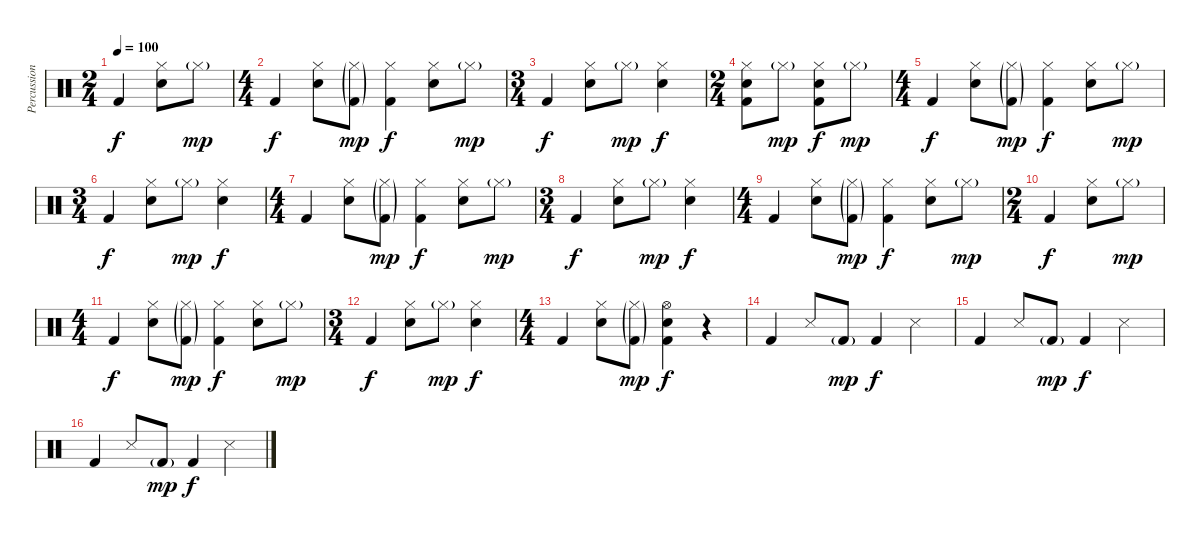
\track ("Percussion" "Percussion") {instrument percussion}
\staff {score}
\articulation defaults
\ts (2 4)
\tempo 100
\clef neutral
\ks c "Kick (hit) 2".4{dy f}
("Hi-Hat (closed)" "Snare (hit) 2").8 "Hi-Hat (closed)"{g}.8{dy mp} |
\ts (4 4)
"Kick (hit) 2".4{dy f} ("Hi-Hat (closed)" "Snare (hit) 2").8 ("Hi-Hat (closed)"{g} "Kick (hit) 2"{g}).8{dy mp} ("Hi-Hat (closed)" "Kick (hit) 2").4{dy f} ("Hi-Hat (closed)" "Snare (hit) 2").8 "Hi-Hat (closed)"{g}.8{dy mp} |
\ts (3 4)
"Kick (hit) 2".4{dy f} ("Hi-Hat (closed)" "Snare (hit) 2").8 "Hi-Hat (closed)"{g}.8{dy mp} ("Hi-Hat (closed)" "Snare (hit) 2").4{dy f} |
\ts (2 4)
("Hi-Hat (closed)" "Snare (hit) 2" "Kick (hit) 2").8 "Hi-Hat (closed)"{g}.8{dy mp} ("Hi-Hat (closed)" "Snare (hit) 2" "Kick (hit) 2").8{dy f} "Hi-Hat (closed)"{g}.8{dy mp} |
\ts (4 4)
"Kick (hit) 2".4{dy f} ("Hi-Hat (closed)" "Snare (hit) 2").8 ("Hi-Hat (closed)"{g} "Kick (hit) 2"{g}).8{dy mp} ("Hi-Hat (closed)" "Kick (hit) 2").4{dy f} ("Hi-Hat (closed)" "Snare (hit) 2").8 "Hi-Hat (closed)"{g}.8{dy mp} |
\ts (3 4)
"Kick (hit) 2".4{dy f} ("Hi-Hat (closed)" "Snare (hit) 2").8 "Hi-Hat (closed)"{g}.8{dy mp} ("Hi-Hat (closed)" "Snare (hit) 2").4{dy f} |
\ts (4 4)
"Kick (hit) 2".4 ("Hi-Hat (closed)" "Snare (hit) 2").8 ("Hi-Hat (closed)"{g} "Kick (hit) 2"{g}).8{dy mp} ("Hi-Hat (closed)" "Kick (hit) 2").4{dy f} ("Hi-Hat (closed)" "Snare (hit) 2").8 "Hi-Hat (closed)"{g}.8{dy mp} |
\ts (3 4)
"Kick (hit) 2".4{dy f} ("Hi-Hat (closed)" "Snare (hit) 2").8 "Hi-Hat (closed)"{g}.8{dy mp} ("Hi-Hat (closed)" "Snare (hit) 2").4{dy f} |
\ts (4 4)
"Kick (hit) 2".4 ("Hi-Hat (closed)" "Snare (hit) 2").8 ("Hi-Hat (closed)"{g} "Kick (hit) 2"{g}).8{dy mp} ("Hi-Hat (closed)" "Kick (hit) 2").4{dy f} ("Hi-Hat (closed)" "Snare (hit) 2").8 "Hi-Hat (closed)"{g}.8{dy mp} |
\ts (2 4)
"Kick (hit) 2".4{dy f} ("Hi-Hat (closed)" "Snare (hit) 2").8 "Hi-Hat (closed)"{g}.8{dy mp} |
\ts (4 4)
"Kick (hit) 2".4{dy f} ("Hi-Hat (closed)" "Snare (hit) 2").8 ("Hi-Hat (closed)"{g} "Kick (hit) 2"{g}).8{dy mp} ("Hi-Hat (closed)" "Kick (hit) 2").4{dy f} ("Hi-Hat (closed)" "Snare (hit) 2").8 "Hi-Hat (closed)"{g}.8{dy mp} |
\ts (3 4)
"Kick (hit) 2".4{dy f} ("Hi-Hat (closed)" "Snare (hit) 2").8 "Hi-Hat (closed)"{g}.8{dy mp} ("Hi-Hat (closed)" "Snare (hit) 2").4{dy f} |
\ts (4 4)
"Kick (hit) 2".4 ("Hi-Hat (closed)" "Snare (hit) 2").8 ("Hi-Hat (closed)"{g} "Kick (hit) 2"{g}).8{dy mp} ("Hi-Hat (open)" "Snare (hit) 2" "Kick (hit) 2").4{dy f} r.4 |
"Kick (hit) 2".4 "Snare (side stick) 3".8 "Kick (hit) 2"{g}.8{dy mp} "Kick (hit) 2".4{dy f} "Snare (side stick) 3".4 |
"Kick (hit) 2".4 "Snare (side stick) 3".8 "Kick (hit) 2"{g}.8{dy mp} "Kick (hit) 2".4{dy f} "Snare (side stick) 3".4 |
"Kick (hit) 2".4 "Snare (side stick) 3".8 "Kick (hit) 2"{g}.8{dy mp} "Kick (hit) 2".4{dy f} "Snare (side stick) 3".4
